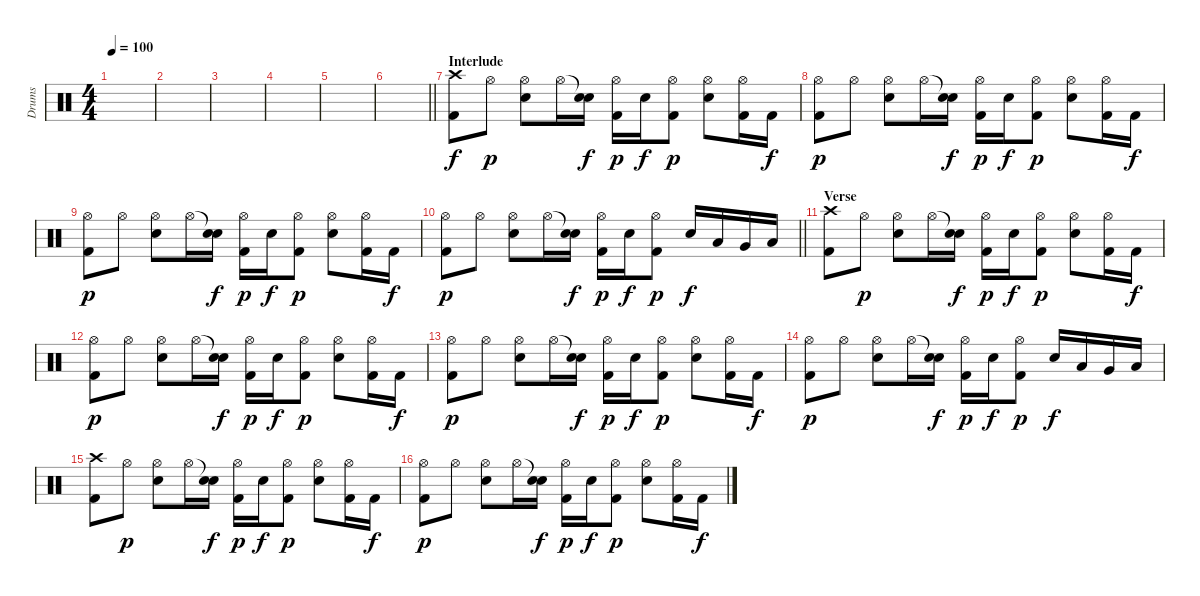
\track ("Drums" "Drums") {instrument percussion}
\staff {score}
\articulation defaults
\ts (4 4)
\tempo 100
\clef neutral
\ks c
|
|
|
|
|
\barLineRight lightlight
|
\section ("" "Interlude")
("Crash high (hit)" "Kick (hit) 2").8 "Hi-Hat (open)".8{dy p} ("Hi-Hat (open)" "Electric Snare (hit)").8 "Hi-Hat (open)".16 ("Snare (hit)"{t} "Electric Snare (hit)").16{dy f} ("Hi-Hat (open)" "Kick (hit) 2").16{dy p} "Electric Snare (hit)".16{dy f} ("Hi-Hat (open)" "Kick (hit) 2").8{dy p} ("Hi-Hat (open)" "Electric Snare (hit)").8 ("Hi-Hat (open)" "Kick (hit) 2").16 "Kick (hit) 2".16{dy f} |
("Hi-Hat (open)" "Kick (hit) 2").8{dy p} "Hi-Hat (open)".8 ("Hi-Hat (open)" "Electric Snare (hit)").8 "Hi-Hat (open)".16 ("Snare (hit)"{t} "Electric Snare (hit)").16{dy f} ("Hi-Hat (open)" "Kick (hit) 2").16{dy p} "Electric Snare (hit)".16{dy f} ("Hi-Hat (open)" "Kick (hit) 2").8{dy p} ("Hi-Hat (open)" "Electric Snare (hit)").8 ("Hi-Hat (open)" "Kick (hit) 2").16 "Kick (hit) 2".16{dy f} |
("Hi-Hat (open)" "Kick (hit) 2").8{dy p} "Hi-Hat (open)".8 ("Hi-Hat (open)" "Electric Snare (hit)").8 "Hi-Hat (open)".16 ("Snare (hit)"{t} "Electric Snare (hit)").16{dy f} ("Hi-Hat (open)" "Kick (hit) 2").16{dy p} "Electric Snare (hit)".16{dy f} ("Hi-Hat (open)" "Kick (hit) 2").8{dy p} ("Hi-Hat (open)" "Electric Snare (hit)").8 ("Hi-Hat (open)" "Kick (hit) 2").16 "Kick (hit) 2".16{dy f} |
\barLineRight lightlight
("Hi-Hat (open)" "Kick (hit) 2").8{dy p} "Hi-Hat (open)".8 ("Hi-Hat (open)" "Electric Snare (hit)").8 "Hi-Hat (open)".16 ("Snare (hit)"{t} "Electric Snare (hit)").16{dy f} ("Hi-Hat (open)" "Kick (hit) 2").16{dy p} "Electric Snare (hit)".16{dy f} ("Hi-Hat (open)" "Kick (hit) 2").8{dy p} "Electric Snare (hit)".16{dy f} "Low Tom (hit)".16 "Very Low Tom (hit)".16 "Low Floor Tom (hit)".16 |
\section ("" "Verse")
("Crash high (hit)" "Kick (hit) 2").8 "Hi-Hat (open)".8{dy p} ("Hi-Hat (open)" "Electric Snare (hit)").8 "Hi-Hat (open)".16 ("Snare (hit)"{t} "Electric Snare (hit)").16{dy f} ("Hi-Hat (open)" "Kick (hit) 2").16{dy p} "Electric Snare (hit)".16{dy f} ("Hi-Hat (open)" "Kick (hit) 2").8{dy p} ("Hi-Hat (open)" "Electric Snare (hit)").8 ("Hi-Hat (open)" "Kick (hit) 2").16 "Kick (hit) 2".16{dy f} |
("Hi-Hat (open)" "Kick (hit) 2").8{dy p} "Hi-Hat (open)".8 ("Hi-Hat (open)" "Electric Snare (hit)").8 "Hi-Hat (open)".16 ("Snare (hit)"{t} "Electric Snare (hit)").16{dy f} ("Hi-Hat (open)" "Kick (hit) 2").16{dy p} "Electric Snare (hit)".16{dy f} ("Hi-Hat (open)" "Kick (hit) 2").8{dy p} ("Hi-Hat (open)" "Electric Snare (hit)").8 ("Hi-Hat (open)" "Kick (hit) 2").16 "Kick (hit) 2".16{dy f} |
("Hi-Hat (open)" "Kick (hit) 2").8{dy p} "Hi-Hat (open)".8 ("Hi-Hat (open)" "Electric Snare (hit)").8 "Hi-Hat (open)".16 ("Snare (hit)"{t} "Electric Snare (hit)").16{dy f} ("Hi-Hat (open)" "Kick (hit) 2").16{dy p} "Electric Snare (hit)".16{dy f} ("Hi-Hat (open)" "Kick (hit) 2").8{dy p} ("Hi-Hat (open)" "Electric Snare (hit)").8 ("Hi-Hat (open)" "Kick (hit) 2").16 "Kick (hit) 2".16{dy f} |
("Hi-Hat (open)" "Kick (hit) 2").8{dy p} "Hi-Hat (open)".8 ("Hi-Hat (open)" "Electric Snare (hit)").8 "Hi-Hat (open)".16 ("Snare (hit)"{t} "Electric Snare (hit)").16{dy f} ("Hi-Hat (open)" "Kick (hit) 2").16{dy p} "Electric Snare (hit)".16{dy f} ("Hi-Hat (open)" "Kick (hit) 2").8{dy p} "Electric Snare (hit)".16{dy f} "Low Tom (hit)".16 "Very Low Tom (hit)".16 "Low Floor Tom (hit)".16 |
("Crash high (hit)" "Kick (hit) 2").8 "Hi-Hat (open)".8{dy p} ("Hi-Hat (open)" "Electric Snare (hit)").8 "Hi-Hat (open)".16 ("Snare (hit)"{t} "Electric Snare (hit)").16{dy f} ("Hi-Hat (open)" "Kick (hit) 2").16{dy p} "Electric Snare (hit)".16{dy f} ("Hi-Hat (open)" "Kick (hit) 2").8{dy p} ("Hi-Hat (open)" "Electric Snare (hit)").8 ("Hi-Hat (open)" "Kick (hit) 2").16 "Kick (hit) 2".16{dy f} |
("Hi-Hat (open)" "Kick (hit) 2").8{dy p} "Hi-Hat (open)".8 ("Hi-Hat (open)" "Electric Snare (hit)").8 "Hi-Hat (open)".16 ("Snare (hit)"{t} "Electric Snare (hit)").16{dy f} ("Hi-Hat (open)" "Kick (hit) 2").16{dy p} "Electric Snare (hit)".16{dy f} ("Hi-Hat (open)" "Kick (hit) 2").8{dy p} ("Hi-Hat (open)" "Electric Snare (hit)").8 ("Hi-Hat (open)" "Kick (hit) 2").16 "Kick (hit) 2".16{dy f}
